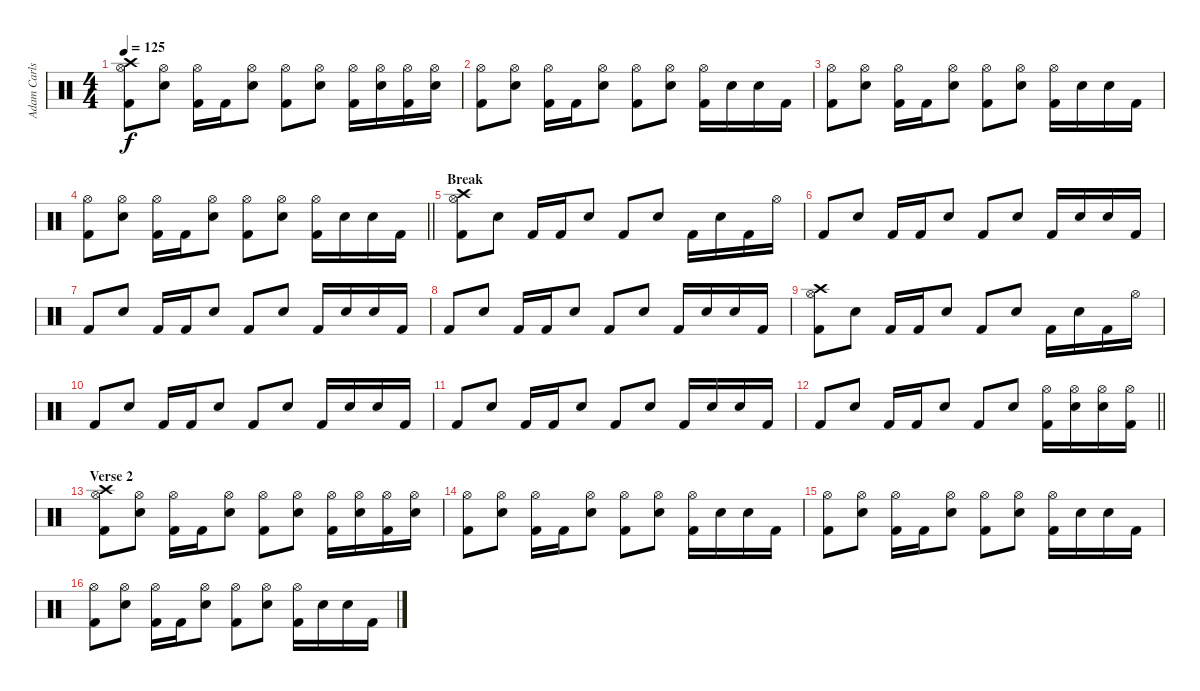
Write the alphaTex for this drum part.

\track ("Adam Carlson" "Adam Carls") {instrument percussion}
\staff {score}
\articulation defaults
\ts (4 4)
\tempo 125
\clef neutral
\ks c
("Crash high (hit)" "Hi-Hat (open)" "Kick (hit) 2").8{dy f} ("Hi-Hat (open)" "Electric Snare (hit)").8 ("Hi-Hat (open)" "Kick (hit) 2").16 "Kick (hit) 2".16 ("Hi-Hat (open)" "Electric Snare (hit)").8 ("Hi-Hat (open)" "Kick (hit) 2").8 ("Hi-Hat (open)" "Electric Snare (hit)").8 ("Hi-Hat (open)" "Kick (hit) 2").16 ("Hi-Hat (open)" "Electric Snare (hit)").16 ("Hi-Hat (open)" "Kick (hit) 2").16 ("Electric Snare (hit)" "Hi-Hat (open)").16 |
("Hi-Hat (open)" "Kick (hit) 2").8 ("Hi-Hat (open)" "Electric Snare (hit)").8 ("Hi-Hat (open)" "Kick (hit) 2").16 "Kick (hit) 2".16 ("Hi-Hat (open)" "Electric Snare (hit)").8 ("Hi-Hat (open)" "Kick (hit) 2").8 ("Hi-Hat (open)" "Electric Snare (hit)").8 ("Hi-Hat (open)" "Kick (hit) 2").16 "Electric Snare (hit)".16 "Electric Snare (hit)".16 "Kick (hit) 2".16 |
("Hi-Hat (open)" "Kick (hit) 2").8 ("Hi-Hat (open)" "Electric Snare (hit)").8 ("Hi-Hat (open)" "Kick (hit) 2").16 "Kick (hit) 2".16 ("Hi-Hat (open)" "Electric Snare (hit)").8 ("Hi-Hat (open)" "Kick (hit) 2").8 ("Hi-Hat (open)" "Electric Snare (hit)").8 ("Hi-Hat (open)" "Kick (hit) 2").16 "Electric Snare (hit)".16 "Electric Snare (hit)".16 "Kick (hit) 2".16 |
\barLineRight lightlight
("Hi-Hat (open)" "Kick (hit) 2").8 ("Hi-Hat (open)" "Electric Snare (hit)").8 ("Hi-Hat (open)" "Kick (hit) 2").16 "Kick (hit) 2".16 ("Hi-Hat (open)" "Electric Snare (hit)").8 ("Hi-Hat (open)" "Kick (hit) 2").8 ("Hi-Hat (open)" "Electric Snare (hit)").8 ("Hi-Hat (open)" "Kick (hit) 2").16 "Electric Snare (hit)".16 "Electric Snare (hit)".16 "Kick (hit) 2".16 |
\section ("" "Break")
("Crash high (hit)" "Hi-Hat (open)" "Kick (hit) 2").8 "Electric Snare (hit)".8 "Kick (hit) 2".16 "Kick (hit) 2".16 "Electric Snare (hit)".8 "Kick (hit) 2".8 "Electric Snare (hit)".8 "Kick (hit) 2".16 "Electric Snare (hit)".16 "Kick (hit) 2".16 "Hi-Hat (open)".16 |
"Kick (hit) 2".8 "Electric Snare (hit)".8 "Kick (hit) 2".16 "Kick (hit) 2".16 "Electric Snare (hit)".8 "Kick (hit) 2".8 "Electric Snare (hit)".8 "Kick (hit) 2".16 "Electric Snare (hit)".16 "Electric Snare (hit)".16 "Kick (hit) 2".16 |
"Kick (hit) 2".8 "Electric Snare (hit)".8 "Kick (hit) 2".16 "Kick (hit) 2".16 "Electric Snare (hit)".8 "Kick (hit) 2".8 "Electric Snare (hit)".8 "Kick (hit) 2".16 "Electric Snare (hit)".16 "Electric Snare (hit)".16 "Kick (hit) 2".16 |
"Kick (hit) 2".8 "Electric Snare (hit)".8 "Kick (hit) 2".16 "Kick (hit) 2".16 "Electric Snare (hit)".8 "Kick (hit) 2".8 "Electric Snare (hit)".8 "Kick (hit) 2".16 "Electric Snare (hit)".16 "Electric Snare (hit)".16 "Kick (hit) 2".16 |
("Crash high (hit)" "Hi-Hat (open)" "Kick (hit) 2").8 "Electric Snare (hit)".8 "Kick (hit) 2".16 "Kick (hit) 2".16 "Electric Snare (hit)".8 "Kick (hit) 2".8 "Electric Snare (hit)".8 "Kick (hit) 2".16 "Electric Snare (hit)".16 "Kick (hit) 2".16 "Hi-Hat (open)".16 |
"Kick (hit) 2".8 "Electric Snare (hit)".8 "Kick (hit) 2".16 "Kick (hit) 2".16 "Electric Snare (hit)".8 "Kick (hit) 2".8 "Electric Snare (hit)".8 "Kick (hit) 2".16 "Electric Snare (hit)".16 "Electric Snare (hit)".16 "Kick (hit) 2".16 |
"Kick (hit) 2".8 "Electric Snare (hit)".8 "Kick (hit) 2".16 "Kick (hit) 2".16 "Electric Snare (hit)".8 "Kick (hit) 2".8 "Electric Snare (hit)".8 "Kick (hit) 2".16 "Electric Snare (hit)".16 "Electric Snare (hit)".16 "Kick (hit) 2".16 |
\barLineRight lightlight "Kick (hit) 2".8 "Electric Snare (hit)".8 "Kick (hit) 2".16 "Kick (hit) 2".16 "Electric Snare (hit)".8 "Kick (hit) 2".8 "Electric Snare (hit)".8
("Hi-Hat (open)" "Kick (hit) 2").16 ("Hi-Hat (open)" "Electric Snare (hit)").16 ("Hi-Hat (open)" "Electric Snare (hit)").16 ("Hi-Hat (open)" "Kick (hit) 2").16 |
\section ("" "Verse 2")
("Crash high (hit)" "Hi-Hat (open)" "Kick (hit) 2").8 ("Hi-Hat (open)" "Electric Snare (hit)").8 ("Hi-Hat (open)" "Kick (hit) 2").16 "Kick (hit) 2".16 ("Hi-Hat (open)" "Electric Snare (hit)").8 ("Hi-Hat (open)" "Kick (hit) 2").8 ("Hi-Hat (open)" "Electric Snare (hit)").8 ("Hi-Hat (open)" "Kick (hit) 2").16 ("Hi-Hat (open)" "Electric Snare (hit)").16 ("Hi-Hat (open)" "Kick (hit) 2").16 ("Electric Snare (hit)" "Hi-Hat (open)").16 |
("Hi-Hat (open)" "Kick (hit) 2").8 ("Hi-Hat (open)" "Electric Snare (hit)").8 ("Hi-Hat (open)" "Kick (hit) 2").16 "Kick (hit) 2".16 ("Hi-Hat (open)" "Electric Snare (hit)").8 ("Hi-Hat (open)" "Kick (hit) 2").8 ("Hi-Hat (open)" "Electric Snare (hit)").8 ("Hi-Hat (open)" "Kick (hit) 2").16 "Electric Snare (hit)".16 "Electric Snare (hit)".16 "Kick (hit) 2".16 |
("Hi-Hat (open)" "Kick (hit) 2").8 ("Hi-Hat (open)" "Electric Snare (hit)").8 ("Hi-Hat (open)" "Kick (hit) 2").16 "Kick (hit) 2".16 ("Hi-Hat (open)" "Electric Snare (hit)").8 ("Hi-Hat (open)" "Kick (hit) 2").8 ("Hi-Hat (open)" "Electric Snare (hit)").8 ("Hi-Hat (open)" "Kick (hit) 2").16 "Electric Snare (hit)".16 "Electric Snare (hit)".16 "Kick (hit) 2".16 |
("Hi-Hat (open)" "Kick (hit) 2").8 ("Hi-Hat (open)" "Electric Snare (hit)").8 ("Hi-Hat (open)" "Kick (hit) 2").16 "Kick (hit) 2".16 ("Hi-Hat (open)" "Electric Snare (hit)").8 ("Hi-Hat (open)" "Kick (hit) 2").8 ("Hi-Hat (open)" "Electric Snare (hit)").8 ("Hi-Hat (open)" "Kick (hit) 2").16 "Electric Snare (hit)".16 "Electric Snare (hit)".16 "Kick (hit) 2".16
